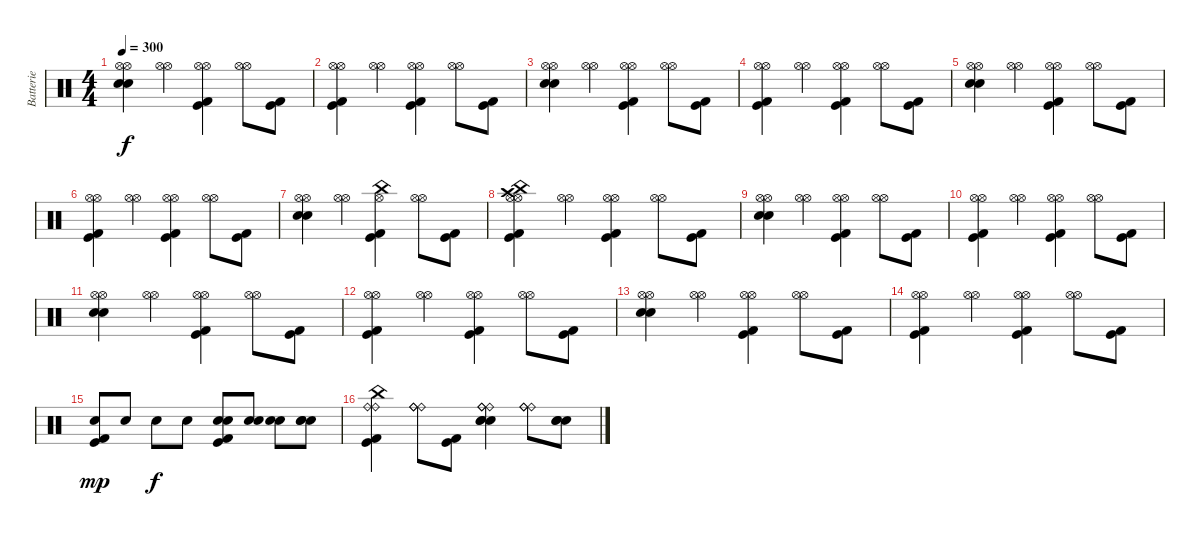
\track ("Batterie" "Batterie") {instrument percussion}
\staff {score}
\articulation defaults
\ts (4 4)
\tempo 300
\clef neutral
\ks c
("Hi-Hat (open)" "Hi-Hat (open)" "Electric Snare (hit)" "Snare (hit) 2").4{dy f} ("Hi-Hat (open)" "Hi-Hat (open)").4 ("Hi-Hat (open)" "Hi-Hat (open)" "Kick (hit)" "Kick (hit) 2").4 ("Hi-Hat (open)" "Hi-Hat (open)").8 ("Kick (hit)" "Kick (hit) 2").8 |
("Hi-Hat (open)" "Hi-Hat (open)" "Kick (hit)" "Kick (hit) 2").4 ("Hi-Hat (open)" "Hi-Hat (open)").4 ("Hi-Hat (open)" "Hi-Hat (open)" "Kick (hit) 2" "Kick (hit)").4 ("Hi-Hat (open)" "Hi-Hat (open)").8 ("Kick (hit)" "Kick (hit) 2").8 |
("Hi-Hat (open)" "Hi-Hat (open)" "Electric Snare (hit)" "Snare (hit) 2").4 ("Hi-Hat (open)" "Hi-Hat (open)").4 ("Hi-Hat (open)" "Hi-Hat (open)" "Kick (hit)" "Kick (hit) 2").4 ("Hi-Hat (open)" "Hi-Hat (open)").8 ("Kick (hit)" "Kick (hit) 2").8 |
("Hi-Hat (open)" "Hi-Hat (open)" "Kick (hit)" "Kick (hit) 2").4 ("Hi-Hat (open)" "Hi-Hat (open)").4 ("Hi-Hat (open)" "Hi-Hat (open)" "Kick (hit) 2" "Kick (hit)").4 ("Hi-Hat (open)" "Hi-Hat (open)").8 ("Kick (hit)" "Kick (hit) 2").8 |
("Hi-Hat (open)" "Hi-Hat (open)" "Electric Snare (hit)" "Snare (hit) 2").4 ("Hi-Hat (open)" "Hi-Hat (open)").4 ("Hi-Hat (open)" "Hi-Hat (open)" "Kick (hit)" "Kick (hit) 2").4 ("Hi-Hat (open)" "Hi-Hat (open)").8 ("Kick (hit)" "Kick (hit) 2").8 |
("Hi-Hat (open)" "Hi-Hat (open)" "Kick (hit)" "Kick (hit) 2").4 ("Hi-Hat (open)" "Hi-Hat (open)").4 ("Hi-Hat (open)" "Hi-Hat (open)" "Kick (hit) 2" "Kick (hit)").4 ("Hi-Hat (open)" "Hi-Hat (open)").8 ("Kick (hit)" "Kick (hit) 2").8 |
("Hi-Hat (open)" "Hi-Hat (open)" "Electric Snare (hit)" "Snare (hit) 2").4 ("Hi-Hat (open)" "Hi-Hat (open)").4 ("China (hit)" "Hi-Hat (open)" "Kick (hit)" "Kick (hit) 2").4 ("Hi-Hat (open)" "Hi-Hat (open)").8 ("Kick (hit)" "Kick (hit) 2").8 |
("Hi-Hat (open)" "Hi-Hat (open)" "Crash high (hit)" "China (hit)" "Kick (hit)" "Kick (hit) 2").4 ("Hi-Hat (open)" "Hi-Hat (open)").4 ("Hi-Hat (open)" "Hi-Hat (open)" "Kick (hit) 2" "Kick (hit)").4 ("Hi-Hat (open)" "Hi-Hat (open)").8 ("Kick (hit)" "Kick (hit) 2").8 |
("Hi-Hat (open)" "Hi-Hat (open)" "Electric Snare (hit)" "Snare (hit) 2").4 ("Hi-Hat (open)" "Hi-Hat (open)").4 ("Hi-Hat (open)" "Hi-Hat (open)" "Kick (hit)" "Kick (hit) 2").4 ("Hi-Hat (open)" "Hi-Hat (open)").8 ("Kick (hit)" "Kick (hit) 2").8 |
("Hi-Hat (open)" "Hi-Hat (open)" "Kick (hit)" "Kick (hit) 2").4 ("Hi-Hat (open)" "Hi-Hat (open)").4 ("Hi-Hat (open)" "Hi-Hat (open)" "Kick (hit) 2" "Kick (hit)").4 ("Hi-Hat (open)" "Hi-Hat (open)").8 ("Kick (hit)" "Kick (hit) 2").8 |
("Hi-Hat (open)" "Hi-Hat (open)" "Electric Snare (hit)" "Snare (hit) 2").4 ("Hi-Hat (open)" "Hi-Hat (open)").4 ("Hi-Hat (open)" "Hi-Hat (open)" "Kick (hit)" "Kick (hit) 2").4 ("Hi-Hat (open)" "Hi-Hat (open)").8 ("Kick (hit)" "Kick (hit) 2").8 |
("Hi-Hat (open)" "Hi-Hat (open)" "Kick (hit)" "Kick (hit) 2").4 ("Hi-Hat (open)" "Hi-Hat (open)").4 ("Hi-Hat (open)" "Hi-Hat (open)" "Kick (hit) 2" "Kick (hit)").4 ("Hi-Hat (open)" "Hi-Hat (open)").8 ("Kick (hit)" "Kick (hit) 2").8 |
("Hi-Hat (open)" "Hi-Hat (open)" "Electric Snare (hit)" "Snare (hit) 2").4 ("Hi-Hat (open)" "Hi-Hat (open)").4 ("Hi-Hat (open)" "Hi-Hat (open)" "Kick (hit)" "Kick (hit) 2").4 ("Hi-Hat (open)" "Hi-Hat (open)").8 ("Kick (hit)" "Kick (hit) 2").8 |
("Hi-Hat (open)" "Hi-Hat (open)" "Kick (hit)" "Kick (hit) 2").4 ("Hi-Hat (open)" "Hi-Hat (open)").4 ("Hi-Hat (open)" "Hi-Hat (open)" "Kick (hit) 2" "Kick (hit)").4 ("Hi-Hat (open)" "Hi-Hat (open)").8 ("Kick (hit)" "Kick (hit) 2").8 |
("Snare (hit) 2" "Kick (hit)" "Kick (hit) 2").8{dy mp} "Snare (hit) 2".8 "Snare (hit) 2".8{dy f} "Snare (hit) 2".8 ("Snare (hit) 2" "Snare (hit) 2" "Kick (hit)" "Kick (hit) 2").8 ("Snare (hit) 2" "Snare (hit) 2").8 ("Snare (hit) 2" "Snare (hit) 2").8 ("Snare (hit) 2" "Snare (hit) 2" "Snare (hit) 2").8 |
("Ride (bell)" "Ride (bell)" "China (hit)" "Kick (hit)" "Kick (hit) 2").4 ("Ride (bell)" "Ride (bell)" "Ride (bell)").8 ("Kick (hit)" "Kick (hit) 2").8 ("Ride (bell)" "Ride (bell)" "Ride (bell)" "Snare (hit) 2" "Snare (hit) 2" "Snare (hit) 2").4 ("Ride (bell)" "Ride (bell)" "Ride (bell)").8 ("Snare (hit) 2" "Snare (hit) 2" "Snare (hit) 2").8
